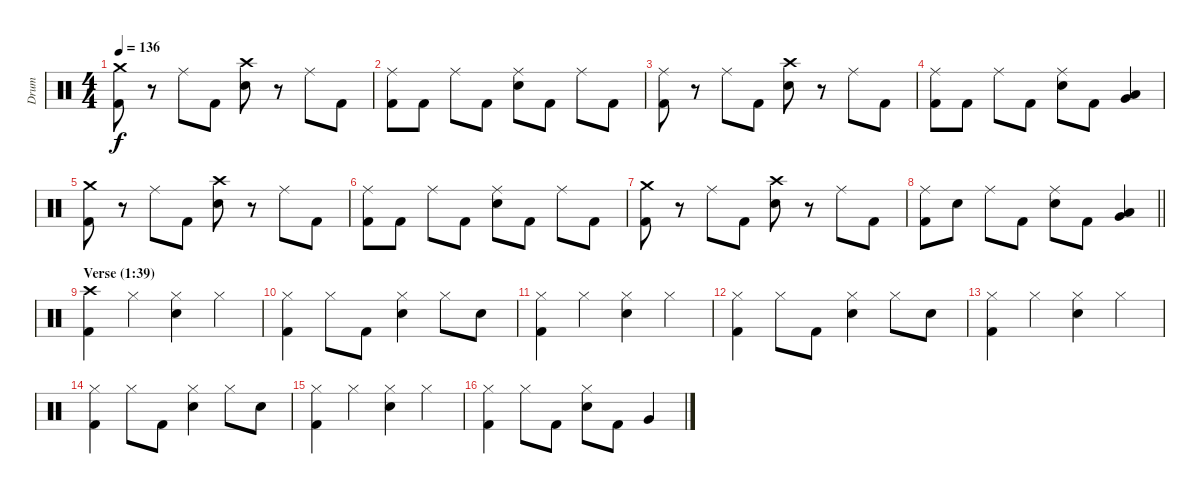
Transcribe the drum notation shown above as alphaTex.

\track ("Drum" "Drum") {instrument percussion}
\staff {score}
\articulation defaults
\ts (4 4)
\tempo 136
\clef neutral
\ks c
("Crash medium (hit)" "Kick (hit) 2").8{dy f} r.8 "Ride (middle)".8 "Kick (hit) 2".8 ("Crash high (hit)" "Snare (hit) 2").8 r.8 "Ride (middle)".8 "Kick (hit) 2".8 |
("Ride (middle)" "Kick (hit) 2").8 "Kick (hit) 2".8 "Ride (middle)".8 "Kick (hit) 2".8 ("Ride (middle)" "Snare (hit) 2").8 "Kick (hit) 2".8 "Ride (middle)".8 "Kick (hit) 2".8 |
("Ride (middle)" "Kick (hit) 2").8 r.8 "Ride (middle)".8 "Kick (hit) 2".8 ("Crash high (hit)" "Snare (hit) 2").8 r.8 "Ride (middle)".8 "Kick (hit) 2".8 |
("Ride (middle)" "Kick (hit) 2").8 "Kick (hit) 2".8 "Ride (middle)".8 "Kick (hit) 2".8 ("Ride (middle)" "Snare (hit) 2").8 "Kick (hit) 2".8 ("Very Low Tom (hit)" "Low Floor Tom (hit)").4 |
("Crash medium (hit)" "Kick (hit) 2").8 r.8 "Ride (middle)".8 "Kick (hit) 2".8 ("Crash high (hit)" "Snare (hit) 2").8 r.8 "Ride (middle)".8 "Kick (hit) 2".8 |
("Ride (middle)" "Kick (hit) 2").8 "Kick (hit) 2".8 "Ride (middle)".8 "Kick (hit) 2".8 ("Ride (middle)" "Snare (hit) 2").8 "Kick (hit) 2".8 "Ride (middle)".8 "Kick (hit) 2".8 |
("Crash medium (hit)" "Kick (hit) 2").8 r.8 "Ride (middle)".8 "Kick (hit) 2".8 ("Crash high (hit)" "Snare (hit) 2").8 r.8 "Ride (middle)".8 "Kick (hit) 2".8 |
\barLineRight lightlight
("Ride (middle)" "Kick (hit) 2").8 "Snare (hit) 2".8 "Ride (middle)".8 "Kick (hit) 2".8 ("Ride (middle)" "Snare (hit) 2").8 "Kick (hit) 2".8 ("Very Low Tom (hit)" "Low Floor Tom (hit)").4 |
\section ("" "Verse (1:39)")
("Crash high (hit)" "Kick (hit) 2").4 "Hi-Hat (closed)".4 ("Hi-Hat (closed)" "Snare (hit) 2").4 "Hi-Hat (closed)".4 |
("Hi-Hat (closed)" "Kick (hit) 2").4 "Hi-Hat (closed)".8 "Kick (hit) 2".8 ("Hi-Hat (closed)" "Snare (hit) 2").4 "Hi-Hat (closed)".8 "Snare (hit) 2".8 |
("Hi-Hat (closed)" "Kick (hit) 2").4 "Hi-Hat (closed)".4 ("Hi-Hat (closed)" "Snare (hit) 2").4 "Hi-Hat (closed)".4 |
("Hi-Hat (closed)" "Kick (hit) 2").4 "Hi-Hat (closed)".8 "Kick (hit) 2".8 ("Hi-Hat (closed)" "Snare (hit) 2").4 "Hi-Hat (closed)".8 "Snare (hit) 2".8 |
("Hi-Hat (closed)" "Kick (hit) 2").4 "Hi-Hat (closed)".4 ("Hi-Hat (closed)" "Snare (hit) 2").4 "Hi-Hat (closed)".4 |
("Hi-Hat (closed)" "Kick (hit) 2").4 "Hi-Hat (closed)".8 "Kick (hit) 2".8 ("Hi-Hat (closed)" "Snare (hit) 2").4 "Hi-Hat (closed)".8 "Snare (hit) 2".8 |
("Hi-Hat (closed)" "Kick (hit) 2").4 "Hi-Hat (closed)".4 ("Hi-Hat (closed)" "Snare (hit) 2").4 "Hi-Hat (closed)".4 |
("Hi-Hat (closed)" "Kick (hit) 2").4 "Hi-Hat (closed)".8 "Kick (hit) 2".8 ("Hi-Hat (closed)" "Snare (hit) 2").8 "Kick (hit) 2".8 "Very Low Tom (hit)".4
